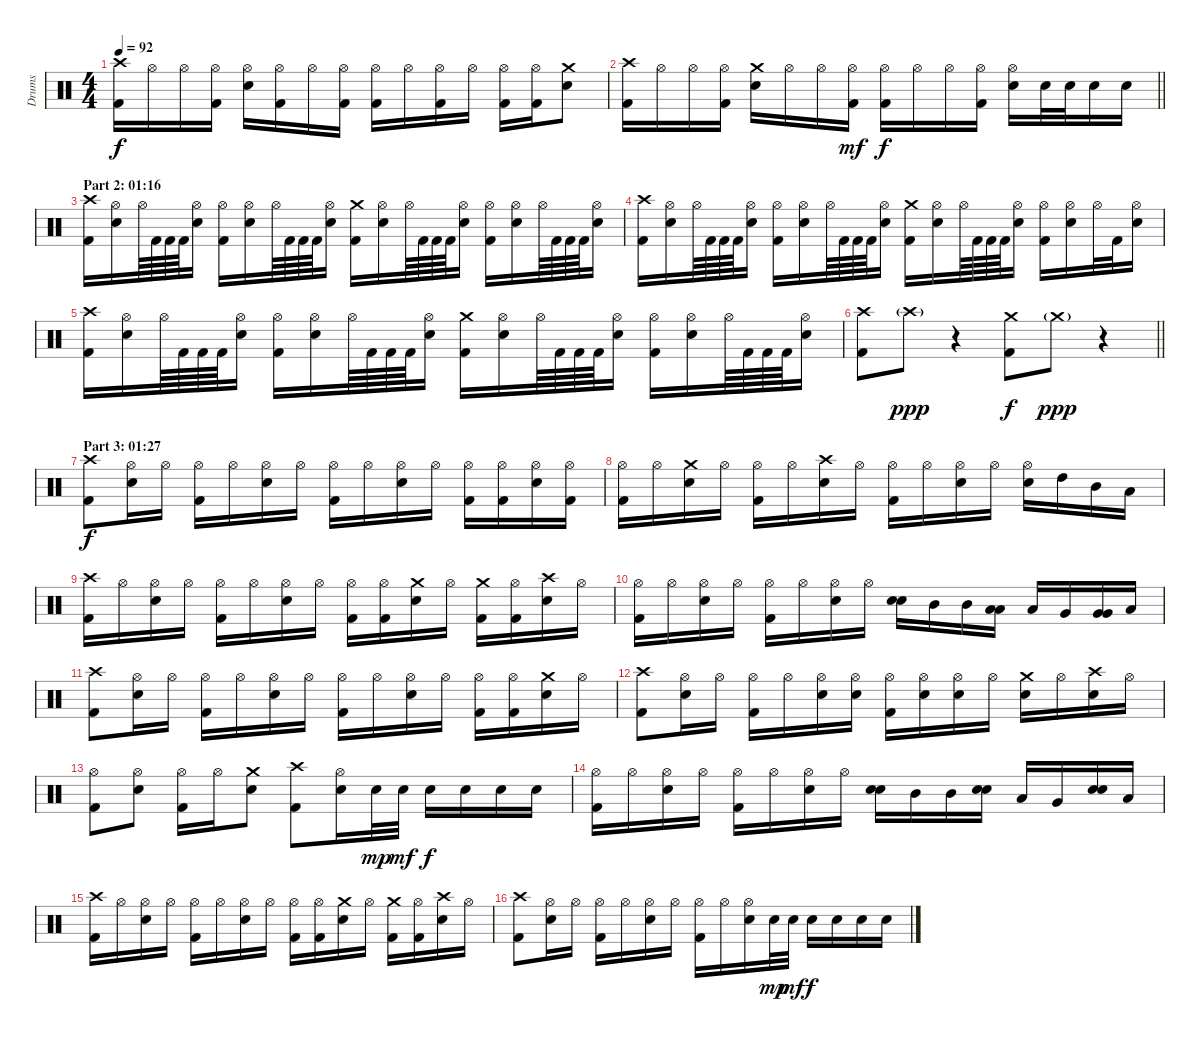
\track ("Drums" "Drums") {instrument percussion}
\staff {score}
\articulation defaults
\ts (4 4)
\tempo 92
\clef neutral
\ks c
("Crash high (hit)" "Kick (hit) 2").16{dy f} "Hi-Hat (open)".16 "Hi-Hat (open)".16 ("Hi-Hat (open)" "Kick (hit) 2").16 ("Hi-Hat (open)" "Electric Snare (hit)").16 ("Hi-Hat (open)" "Kick (hit) 2").16 "Hi-Hat (open)".16 ("Hi-Hat (open)" "Kick (hit) 2").16 ("Hi-Hat (open)" "Kick (hit) 2").16 "Hi-Hat (open)".16 ("Hi-Hat (open)" "Kick (hit) 2").16 "Hi-Hat (open)".16 ("Hi-Hat (open)" "Kick (hit) 2").16 ("Hi-Hat (open)" "Kick (hit) 2").16 ("Crash medium (hit)" "Electric Snare (hit)").8 |
\barLineRight lightlight
("Crash high (hit)" "Kick (hit) 2").16 "Hi-Hat (open)".16 "Hi-Hat (open)".16 ("Hi-Hat (open)" "Kick (hit) 2").16 ("Crash medium (hit)" "Electric Snare (hit)").16 "Hi-Hat (open)".16 "Hi-Hat (open)".16 ("Hi-Hat (open)" "Kick (hit) 2").16{dy mf} ("Hi-Hat (open)" "Kick (hit) 2").16{dy f} "Hi-Hat (open)".16 "Hi-Hat (open)".16 ("Hi-Hat (open)" "Kick (hit) 2").16 ("Hi-Hat (open)" "Electric Snare (hit)").16 "Electric Snare (hit)".32 "Electric Snare (hit)".32 "Electric Snare (hit)".16 "Electric Snare (hit)".16 |
\section ("" "Part 2: 01:16")
("Crash high (hit)" "Kick (hit) 2").16 ("Hi-Hat (open)" "Electric Snare (hit)").16 "Hi-Hat (open)".64 "Kick (hit) 2".64 "Kick (hit) 2".64 "Kick (hit) 2".64 ("Hi-Hat (open)" "Electric Snare (hit)").16 ("Hi-Hat (open)" "Kick (hit) 2").16 ("Hi-Hat (open)" "Electric Snare (hit)").16 "Hi-Hat (open)".64 "Kick (hit) 2".64 "Kick (hit) 2".64 "Kick (hit) 2".64 ("Hi-Hat (open)" "Electric Snare (hit)").16 ("Crash medium (hit)" "Kick (hit) 2").16 ("Hi-Hat (open)" "Electric Snare (hit)").16 "Hi-Hat (open)".64 "Kick (hit) 2".64 "Kick (hit) 2".64 "Kick (hit) 2".64 ("Hi-Hat (open)" "Electric Snare (hit)").16 ("Hi-Hat (open)" "Kick (hit) 2").16 ("Hi-Hat (open)" "Electric Snare (hit)").16 "Hi-Hat (open)".64 "Kick (hit) 2".64 "Kick (hit) 2".64 "Kick (hit) 2".64 ("Hi-Hat (open)" "Electric Snare (hit)").16 |
("Crash high (hit)" "Kick (hit) 2").16 ("Hi-Hat (open)" "Electric Snare (hit)").16 "Hi-Hat (open)".64 "Kick (hit) 2".64 "Kick (hit) 2".64 "Kick (hit) 2".64 ("Hi-Hat (open)" "Electric Snare (hit)").16 ("Hi-Hat (open)" "Kick (hit) 2").16 ("Hi-Hat (open)" "Electric Snare (hit)").16 "Hi-Hat (open)".64 "Kick (hit) 2".64 "Kick (hit) 2".64 "Kick (hit) 2".64 ("Hi-Hat (open)" "Electric Snare (hit)").16 ("Crash medium (hit)" "Kick (hit) 2").16 ("Hi-Hat (open)" "Electric Snare (hit)").16 "Hi-Hat (open)".64 "Kick (hit) 2".64 "Kick (hit) 2".64 "Kick (hit) 2".64 ("Hi-Hat (open)" "Electric Snare (hit)").16 ("Hi-Hat (open)" "Kick (hit) 2").16 ("Hi-Hat (open)" "Electric Snare (hit)").16 "Hi-Hat (open)".32 "Kick (hit) 2".32 ("Hi-Hat (open)" "Electric Snare (hit)").16 |
("Crash high (hit)" "Kick (hit) 2").16 ("Hi-Hat (open)" "Electric Snare (hit)").16 "Hi-Hat (open)".64 "Kick (hit) 2".64 "Kick (hit) 2".64 "Kick (hit) 2".64 ("Hi-Hat (open)" "Electric Snare (hit)").16 ("Hi-Hat (open)" "Kick (hit) 2").16 ("Hi-Hat (open)" "Electric Snare (hit)").16 "Hi-Hat (open)".64 "Kick (hit) 2".64 "Kick (hit) 2".64 "Kick (hit) 2".64 ("Hi-Hat (open)" "Electric Snare (hit)").16 ("Crash medium (hit)" "Kick (hit) 2").16 ("Hi-Hat (open)" "Electric Snare (hit)").16 "Hi-Hat (open)".64 "Kick (hit) 2".64 "Kick (hit) 2".64 "Kick (hit) 2".64 ("Hi-Hat (open)" "Electric Snare (hit)").16 ("Hi-Hat (open)" "Kick (hit) 2").16 ("Hi-Hat (open)" "Electric Snare (hit)").16 "Hi-Hat (open)".64 "Kick (hit) 2".64 "Kick (hit) 2".64 "Kick (hit) 2".64 ("Hi-Hat (open)" "Electric Snare (hit)").16 |
\barLineRight lightlight
("Crash high (hit)" "Kick (hit) 2").8 "Crash high (hit)"{g}.8{dy ppp} r.4 ("Crash medium (hit)" "Kick (hit) 2").8{dy f} "Crash medium (hit)"{g}.8{dy ppp} r.4 |
\section ("" "Part 3: 01:27")
("Crash high (hit)" "Kick (hit) 2").8{dy f} ("Hi-Hat (open)" "Electric Snare (hit)").16 "Hi-Hat (open)".16 ("Hi-Hat (open)" "Kick (hit) 2").16 "Hi-Hat (open)".16 ("Hi-Hat (open)" "Electric Snare (hit)").16 "Hi-Hat (open)".16 ("Hi-Hat (open)" "Kick (hit) 2").16 "Hi-Hat (open)".16 ("Hi-Hat (open)" "Electric Snare (hit)").16 "Hi-Hat (open)".16 ("Hi-Hat (open)" "Kick (hit) 2").16 ("Hi-Hat (open)" "Kick (hit) 2").16 ("Hi-Hat (open)" "Electric Snare (hit)").16 ("Hi-Hat (open)" "Kick (hit) 2").16 |
("Hi-Hat (open)" "Kick (hit) 2").16 "Hi-Hat (open)".16 ("Crash medium (hit)" "Electric Snare (hit)").16 "Hi-Hat (open)".16 ("Hi-Hat (open)" "Kick (hit) 2").16 "Hi-Hat (open)".16 ("Crash high (hit)" "Electric Snare (hit)").16 "Hi-Hat (open)".16 ("Hi-Hat (open)" "Kick (hit) 2").16 "Hi-Hat (open)".16 ("Hi-Hat (open)" "Electric Snare (hit)").16 "Hi-Hat (open)".16 ("Hi-Hat (open)" "Electric Snare (hit)").16 "High Tom (hit)".16 "Mid Tom (hit)".16 "Low Tom (hit)".16 |
("Crash high (hit)" "Kick (hit) 2").16 "Hi-Hat (open)".16 ("Hi-Hat (open)" "Electric Snare (hit)").16 "Hi-Hat (open)".16 ("Hi-Hat (open)" "Kick (hit) 2").16 "Hi-Hat (open)".16 ("Hi-Hat (open)" "Electric Snare (hit)").16 "Hi-Hat (open)".16 ("Hi-Hat (open)" "Kick (hit) 2").16 ("Hi-Hat (open)" "Kick (hit) 2").16 ("Crash medium (hit)" "Electric Snare (hit)").16 "Hi-Hat (open)".16 ("Crash medium (hit)" "Kick (hit) 2").16 ("Hi-Hat (open)" "Kick (hit) 2").16 ("Crash high (hit)" "Electric Snare (hit)").16 "Hi-Hat (open)".16 |
("Hi-Hat (open)" "Kick (hit) 2").16 "Hi-Hat (open)".16 ("Hi-Hat (open)" "Electric Snare (hit)").16 "Hi-Hat (open)".16 ("Hi-Hat (open)" "Kick (hit) 2").16 "Hi-Hat (open)".16 ("Hi-Hat (open)" "Electric Snare (hit)").16 "Hi-Hat (open)".16 ("Electric Snare (hit)" "Electric Snare (hit)").16{bd 30} "Mid Tom (hit)".16 "Mid Tom (hit)".16 ("Low Tom (hit)" "Low Tom (hit)").16{bd 30} "Low Tom (hit)".16 "Very Low Tom (hit)".16 ("Very Low Tom (hit)" "Very Low Tom (hit)").16{bd 30} "Low Floor Tom (hit)".16 |
("Crash high (hit)" "Kick (hit) 2").8 ("Hi-Hat (open)" "Electric Snare (hit)").16 "Hi-Hat (open)".16 ("Hi-Hat (open)" "Kick (hit) 2").16 "Hi-Hat (open)".16 ("Hi-Hat (open)" "Electric Snare (hit)").16 "Hi-Hat (open)".16 ("Hi-Hat (open)" "Kick (hit) 2").16 "Hi-Hat (open)".16 ("Hi-Hat (open)" "Electric Snare (hit)").16 "Hi-Hat (open)".16 ("Hi-Hat (open)" "Kick (hit) 2").16 ("Hi-Hat (open)" "Kick (hit) 2").16 ("Crash medium (hit)" "Electric Snare (hit)").16 "Hi-Hat (open)".16 |
("Crash high (hit)" "Kick (hit) 2").8 ("Hi-Hat (open)" "Electric Snare (hit)").16 "Hi-Hat (open)".16 ("Hi-Hat (open)" "Kick (hit) 2").16 "Hi-Hat (open)".16 ("Hi-Hat (open)" "Electric Snare (hit)").16 ("Hi-Hat (open)" "Electric Snare (hit)").16 ("Hi-Hat (open)" "Kick (hit) 2").16 ("Hi-Hat (open)" "Electric Snare (hit)").16 ("Hi-Hat (open)" "Electric Snare (hit)").16 "Hi-Hat (open)".16 ("Crash medium (hit)" "Electric Snare (hit)").16 "Hi-Hat (open)".16 ("Crash high (hit)" "Electric Snare (hit)").16 "Hi-Hat (open)".16 |
("Hi-Hat (open)" "Kick (hit) 2").8 ("Hi-Hat (open)" "Electric Snare (hit)").8 ("Hi-Hat (open)" "Kick (hit) 2").16 "Hi-Hat (open)".16 ("Crash medium (hit)" "Electric Snare (hit)").8 ("Crash high (hit)" "Kick (hit) 2").8 ("Hi-Hat (open)" "Electric Snare (hit)").16 "Electric Snare (hit)".32{dy mp} "Electric Snare (hit)".32{dy mf} "Electric Snare (hit)".16{dy f} "Electric Snare (hit)".16 "Electric Snare (hit)".16 "Electric Snare (hit)".16 |
("Hi-Hat (open)" "Kick (hit) 2").16 "Hi-Hat (open)".16 ("Hi-Hat (open)" "Electric Snare (hit)").16 "Hi-Hat (open)".16 ("Hi-Hat (open)" "Kick (hit) 2").16 "Hi-Hat (open)".16 ("Hi-Hat (open)" "Electric Snare (hit)").16 "Hi-Hat (open)".16 ("Electric Snare (hit)" "Electric Snare (hit)").16{bd 30} "Mid Tom (hit)".16 "Mid Tom (hit)".16 ("Electric Snare (hit)" "Electric Snare (hit)").16{bd 30} "Low Tom (hit)".16 "Very Low Tom (hit)".16 ("Electric Snare (hit)" "Electric Snare (hit)").16{bd 30} "Low Floor Tom (hit)".16 |
("Crash high (hit)" "Kick (hit) 2").16 "Hi-Hat (open)".16 ("Hi-Hat (open)" "Electric Snare (hit)").16 "Hi-Hat (open)".16 ("Hi-Hat (open)" "Kick (hit) 2").16 "Hi-Hat (open)".16 ("Hi-Hat (open)" "Electric Snare (hit)").16 "Hi-Hat (open)".16 ("Hi-Hat (open)" "Kick (hit) 2").16 ("Hi-Hat (open)" "Kick (hit) 2").16 ("Crash medium (hit)" "Electric Snare (hit)").16 "Hi-Hat (open)".16 ("Crash medium (hit)" "Kick (hit) 2").16 ("Hi-Hat (open)" "Kick (hit) 2").16 ("Crash high (hit)" "Electric Snare (hit)").16 "Hi-Hat (open)".16 |
("Crash high (hit)" "Kick (hit) 2").8 ("Hi-Hat (open)" "Electric Snare (hit)").16 "Hi-Hat (open)".16 ("Hi-Hat (open)" "Kick (hit) 2").16 "Hi-Hat (open)".16 ("Hi-Hat (open)" "Electric Snare (hit)").16 "Hi-Hat (open)".16 ("Hi-Hat (open)" "Kick (hit) 2").16 "Hi-Hat (open)".16 ("Hi-Hat (open)" "Electric Snare (hit)").16 "Electric Snare (hit)".32{dy mp} "Electric Snare (hit)".32{dy mf} "Electric Snare (hit)".16{dy f} "Electric Snare (hit)".16 "Electric Snare (hit)".16 "Electric Snare (hit)".16
